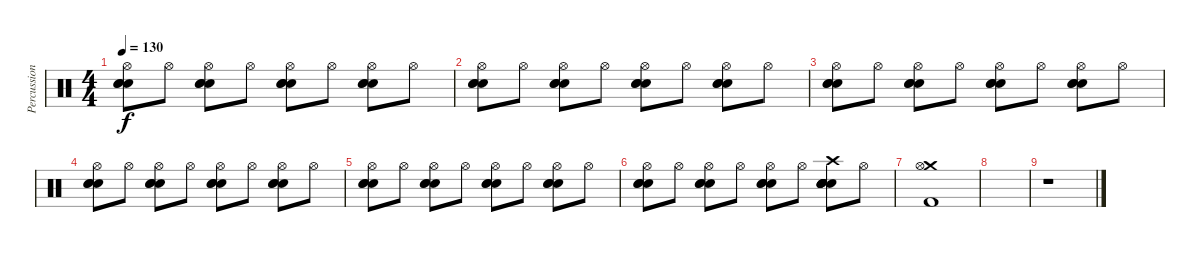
\track ("Percussion" "Percussion") {instrument percussion}
\staff {score}
\articulation defaults
\ts (4 4)
\tempo 130
\clef neutral
\ks c
("Hi-Hat (open)" "Electric Snare (hit)" "Electric Snare (hit)" "Electric Snare (hit)").8{dy f} "Hi-Hat (open)".8 ("Hi-Hat (open)" "Electric Snare (hit)" "Electric Snare (hit)" "Electric Snare (hit)").8 "Hi-Hat (open)".8 ("Hi-Hat (open)" "Electric Snare (hit)" "Electric Snare (hit)" "Electric Snare (hit)").8 "Hi-Hat (open)".8 ("Hi-Hat (open)" "Electric Snare (hit)" "Electric Snare (hit)" "Electric Snare (hit)").8 "Hi-Hat (open)".8 |
("Hi-Hat (open)" "Electric Snare (hit)" "Electric Snare (hit)" "Electric Snare (hit)").8 "Hi-Hat (open)".8 ("Hi-Hat (open)" "Electric Snare (hit)" "Electric Snare (hit)" "Electric Snare (hit)").8 "Hi-Hat (open)".8 ("Hi-Hat (open)" "Electric Snare (hit)" "Electric Snare (hit)" "Electric Snare (hit)").8 "Hi-Hat (open)".8 ("Hi-Hat (open)" "Electric Snare (hit)" "Electric Snare (hit)" "Electric Snare (hit)").8 "Hi-Hat (open)".8 |
("Hi-Hat (open)" "Electric Snare (hit)" "Electric Snare (hit)" "Electric Snare (hit)").8 "Hi-Hat (open)".8 ("Hi-Hat (open)" "Electric Snare (hit)" "Electric Snare (hit)" "Electric Snare (hit)").8 "Hi-Hat (open)".8 ("Hi-Hat (open)" "Electric Snare (hit)" "Electric Snare (hit)" "Electric Snare (hit)").8 "Hi-Hat (open)".8 ("Hi-Hat (open)" "Electric Snare (hit)" "Electric Snare (hit)" "Electric Snare (hit)").8 "Hi-Hat (open)".8 |
("Hi-Hat (open)" "Electric Snare (hit)" "Electric Snare (hit)" "Electric Snare (hit)").8 "Hi-Hat (open)".8 ("Hi-Hat (open)" "Electric Snare (hit)" "Electric Snare (hit)" "Electric Snare (hit)").8 "Hi-Hat (open)".8 ("Hi-Hat (open)" "Electric Snare (hit)" "Electric Snare (hit)" "Electric Snare (hit)").8 "Hi-Hat (open)".8 ("Hi-Hat (open)" "Electric Snare (hit)" "Electric Snare (hit)" "Electric Snare (hit)").8 "Hi-Hat (open)".8 |
("Hi-Hat (open)" "Electric Snare (hit)" "Electric Snare (hit)" "Electric Snare (hit)").8 "Hi-Hat (open)".8 ("Hi-Hat (open)" "Electric Snare (hit)" "Electric Snare (hit)" "Electric Snare (hit)").8 "Hi-Hat (open)".8 ("Hi-Hat (open)" "Electric Snare (hit)" "Electric Snare (hit)" "Electric Snare (hit)").8 "Hi-Hat (open)".8 ("Hi-Hat (open)" "Electric Snare (hit)" "Electric Snare (hit)" "Electric Snare (hit)").8 "Hi-Hat (open)".8 |
("Hi-Hat (open)" "Electric Snare (hit)" "Electric Snare (hit)" "Electric Snare (hit)").8 "Hi-Hat (open)".8 ("Hi-Hat (open)" "Electric Snare (hit)" "Electric Snare (hit)" "Electric Snare (hit)").8 "Hi-Hat (open)".8 ("Hi-Hat (open)" "Electric Snare (hit)" "Electric Snare (hit)" "Electric Snare (hit)").8 "Hi-Hat (open)".8 ("Crash high (hit)" "Electric Snare (hit)" "Electric Snare (hit)" "Electric Snare (hit)" "Hand Clap (hit)" "Hand Clap (hit)").8 "Hi-Hat (open)".8 |
("Kick (hit) 2" "Crash medium (hit)" "Hi-Hat (open)").1 |
|
r.1
